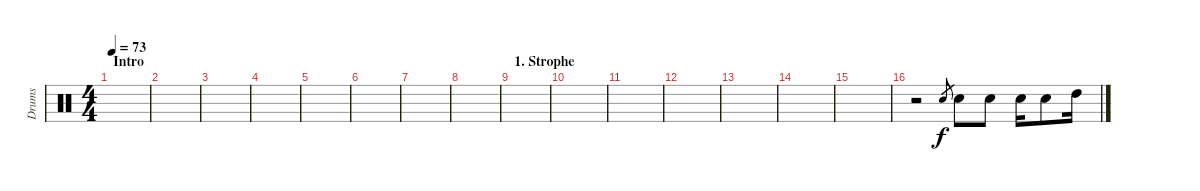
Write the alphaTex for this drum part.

\track ("Drums" "Drums") {instrument percussion}
\staff {score}
\articulation defaults
\ts (4 4)
\section ("" "Intro")
\tempo 73
\clef neutral
\ks c
|
|
|
|
|
|
|
|
\section ("" "1. Strophe")
|
|
|
|
|
|
|
r.2 "Electric Snare (hit)".8{gr} "Electric Snare (hit)".8{dy f} "Electric Snare (hit)".8 "Electric Snare (hit)".16 "Electric Snare (hit)".8 "High Tom (hit)".16
